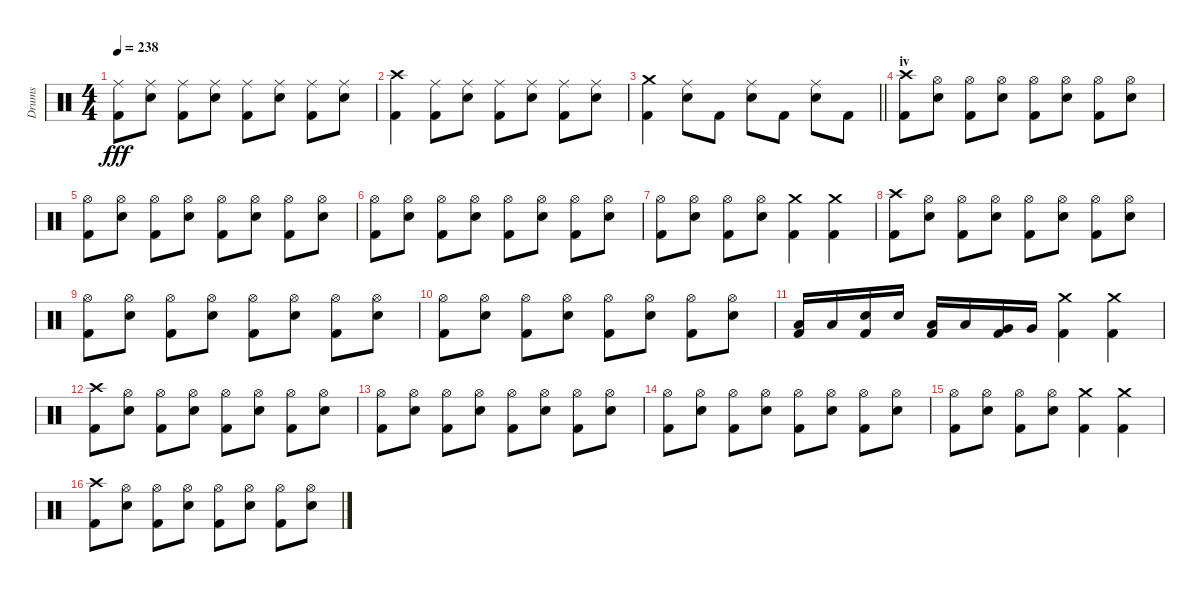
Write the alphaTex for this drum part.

\track ("Drums" "Drums") {instrument percussion}
\staff {score}
\articulation defaults
\ts (4 4)
\tempo 238
\clef neutral
\ks c
("Ride (middle)" "Kick (hit) 2").8{dy fff} ("Ride (middle)" "Electric Snare (hit)").8 ("Ride (middle)" "Kick (hit) 2").8 ("Ride (middle)" "Electric Snare (hit)").8 ("Ride (middle)" "Kick (hit) 2").8 ("Ride (middle)" "Electric Snare (hit)").8 ("Ride (middle)" "Kick (hit) 2").8 ("Ride (middle)" "Electric Snare (hit)").8 |
("Crash high (hit)" "Kick (hit) 2").4 ("Ride (middle)" "Kick (hit) 2").8 ("Ride (middle)" "Electric Snare (hit)").8 ("Ride (middle)" "Kick (hit) 2").8 ("Ride (middle)" "Electric Snare (hit)").8 ("Ride (middle)" "Kick (hit) 2").8 ("Ride (middle)" "Electric Snare (hit)").8 |
\barLineRight lightlight
("Crash medium (hit)" "Kick (hit) 2").4 ("Ride (middle)" "Electric Snare (hit)").8 "Kick (hit) 2".8 ("Ride (middle)" "Electric Snare (hit)").8 "Kick (hit) 2".8 ("Ride (middle)" "Electric Snare (hit)").8 "Kick (hit) 2".8 |
\section ("" "iv")
("Crash high (hit)" "Kick (hit) 2").8 ("Hi-Hat (open)" "Electric Snare (hit)").8 ("Hi-Hat (open)" "Kick (hit) 2").8 ("Hi-Hat (open)" "Electric Snare (hit)").8 ("Hi-Hat (open)" "Kick (hit) 2").8 ("Hi-Hat (open)" "Electric Snare (hit)").8 ("Hi-Hat (open)" "Kick (hit) 2").8 ("Hi-Hat (open)" "Electric Snare (hit)").8 |
("Hi-Hat (open)" "Kick (hit) 2").8 ("Hi-Hat (open)" "Electric Snare (hit)").8 ("Hi-Hat (open)" "Kick (hit) 2").8 ("Hi-Hat (open)" "Electric Snare (hit)").8 ("Hi-Hat (open)" "Kick (hit) 2").8 ("Hi-Hat (open)" "Electric Snare (hit)").8 ("Hi-Hat (open)" "Kick (hit) 2").8 ("Hi-Hat (open)" "Electric Snare (hit)").8 |
("Hi-Hat (open)" "Kick (hit) 2").8 ("Hi-Hat (open)" "Electric Snare (hit)").8 ("Hi-Hat (open)" "Kick (hit) 2").8 ("Hi-Hat (open)" "Electric Snare (hit)").8 ("Hi-Hat (open)" "Kick (hit) 2").8 ("Hi-Hat (open)" "Electric Snare (hit)").8 ("Hi-Hat (open)" "Kick (hit) 2").8 ("Hi-Hat (open)" "Electric Snare (hit)").8 |
("Hi-Hat (open)" "Kick (hit) 2").8 ("Hi-Hat (open)" "Electric Snare (hit)").8 ("Hi-Hat (open)" "Kick (hit) 2").8 ("Hi-Hat (open)" "Electric Snare (hit)").8 ("Crash medium (hit)" "Kick (hit) 2").4 ("Crash medium (hit)" "Kick (hit) 2").4 |
("Crash high (hit)" "Kick (hit) 2").8 ("Hi-Hat (open)" "Electric Snare (hit)").8 ("Hi-Hat (open)" "Kick (hit) 2").8 ("Hi-Hat (open)" "Electric Snare (hit)").8 ("Hi-Hat (open)" "Kick (hit) 2").8 ("Hi-Hat (open)" "Electric Snare (hit)").8 ("Hi-Hat (open)" "Kick (hit) 2").8 ("Hi-Hat (open)" "Electric Snare (hit)").8 |
("Hi-Hat (open)" "Kick (hit) 2").8 ("Hi-Hat (open)" "Electric Snare (hit)").8 ("Hi-Hat (open)" "Kick (hit) 2").8 ("Hi-Hat (open)" "Electric Snare (hit)").8 ("Hi-Hat (open)" "Kick (hit) 2").8 ("Hi-Hat (open)" "Electric Snare (hit)").8 ("Hi-Hat (open)" "Kick (hit) 2").8 ("Hi-Hat (open)" "Electric Snare (hit)").8 |
("Hi-Hat (open)" "Kick (hit) 2").8 ("Hi-Hat (open)" "Electric Snare (hit)").8 ("Hi-Hat (open)" "Kick (hit) 2").8 ("Hi-Hat (open)" "Electric Snare (hit)").8 ("Hi-Hat (open)" "Kick (hit) 2").8 ("Hi-Hat (open)" "Electric Snare (hit)").8 ("Hi-Hat (open)" "Kick (hit) 2").8 ("Hi-Hat (open)" "Electric Snare (hit)").8 |
("Low Tom (hit)" "Kick (hit) 2").16 "Low Tom (hit)".16 ("Electric Snare (hit)" "Kick (hit) 2").16 "Electric Snare (hit)".16 ("Low Tom (hit)" "Kick (hit) 2").16 "Low Tom (hit)".16 ("Very Low Tom (hit)" "Kick (hit) 2").16 "Very Low Tom (hit)".16 ("Crash medium (hit)" "Kick (hit) 2").4 ("Crash medium (hit)" "Kick (hit) 2").4 |
("Crash high (hit)" "Kick (hit) 2").8 ("Hi-Hat (open)" "Electric Snare (hit)").8 ("Hi-Hat (open)" "Kick (hit) 2").8 ("Hi-Hat (open)" "Electric Snare (hit)").8 ("Hi-Hat (open)" "Kick (hit) 2").8 ("Hi-Hat (open)" "Electric Snare (hit)").8 ("Hi-Hat (open)" "Kick (hit) 2").8 ("Hi-Hat (open)" "Electric Snare (hit)").8 |
("Hi-Hat (open)" "Kick (hit) 2").8 ("Hi-Hat (open)" "Electric Snare (hit)").8 ("Hi-Hat (open)" "Kick (hit) 2").8 ("Hi-Hat (open)" "Electric Snare (hit)").8 ("Hi-Hat (open)" "Kick (hit) 2").8 ("Hi-Hat (open)" "Electric Snare (hit)").8 ("Hi-Hat (open)" "Kick (hit) 2").8 ("Hi-Hat (open)" "Electric Snare (hit)").8 |
("Hi-Hat (open)" "Kick (hit) 2").8 ("Hi-Hat (open)" "Electric Snare (hit)").8 ("Hi-Hat (open)" "Kick (hit) 2").8 ("Hi-Hat (open)" "Electric Snare (hit)").8 ("Hi-Hat (open)" "Kick (hit) 2").8 ("Hi-Hat (open)" "Electric Snare (hit)").8 ("Hi-Hat (open)" "Kick (hit) 2").8 ("Hi-Hat (open)" "Electric Snare (hit)").8 |
("Hi-Hat (open)" "Kick (hit) 2").8 ("Hi-Hat (open)" "Electric Snare (hit)").8 ("Hi-Hat (open)" "Kick (hit) 2").8 ("Hi-Hat (open)" "Electric Snare (hit)").8 ("Crash medium (hit)" "Kick (hit) 2").4 ("Crash medium (hit)" "Kick (hit) 2").4 |
("Crash high (hit)" "Kick (hit) 2").8 ("Hi-Hat (open)" "Electric Snare (hit)").8 ("Hi-Hat (open)" "Kick (hit) 2").8 ("Hi-Hat (open)" "Electric Snare (hit)").8 ("Hi-Hat (open)" "Kick (hit) 2").8 ("Hi-Hat (open)" "Electric Snare (hit)").8 ("Hi-Hat (open)" "Kick (hit) 2").8 ("Hi-Hat (open)" "Electric Snare (hit)").8
